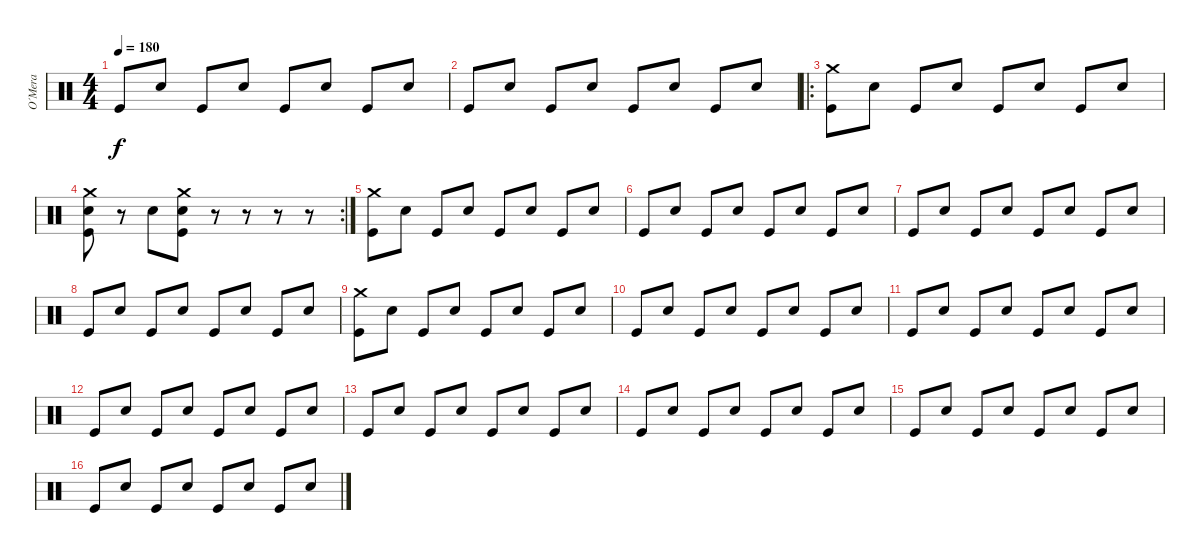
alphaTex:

\track ("O´Mera" "O´Mera") {instrument percussion}
\staff {score}
\articulation defaults
\ts (4 4)
\tempo 180
\clef neutral
\ks c "Kick (hit)".8{dy f} "Electric Snare (hit)".8 "Kick (hit)".8 "Electric Snare (hit)".8 "Kick (hit)".8 "Electric Snare (hit)".8 "Kick (hit)".8 "Electric Snare (hit)".8
|
"Kick (hit)".8 "Electric Snare (hit)".8 "Kick (hit)".8 "Electric Snare (hit)".8 "Kick (hit)".8 "Electric Snare (hit)".8 "Kick (hit)".8 "Electric Snare (hit)".8 |
\ro
("Crash medium (hit)" "Kick (hit)").8 "Electric Snare (hit)".8 "Kick (hit)".8 "Electric Snare (hit)".8 "Kick (hit)".8 "Electric Snare (hit)".8 "Kick (hit)".8 "Electric Snare (hit)".8 |
\rc 2
("Crash medium (hit)" "Electric Snare (hit)" "Kick (hit)").8 r.8 "Electric Snare (hit)".8 ("Crash medium (hit)" "Electric Snare (hit)" "Kick (hit)").8 r.8 r.8 r.8 r.8 |
("Crash medium (hit)" "Kick (hit)").8 "Electric Snare (hit)".8 "Kick (hit)".8 "Electric Snare (hit)".8 "Kick (hit)".8 "Electric Snare (hit)".8 "Kick (hit)".8 "Electric Snare (hit)".8 |
"Kick (hit)".8 "Electric Snare (hit)".8 "Kick (hit)".8 "Electric Snare (hit)".8 "Kick (hit)".8 "Electric Snare (hit)".8 "Kick (hit)".8 "Electric Snare (hit)".8 |
"Kick (hit)".8 "Electric Snare (hit)".8 "Kick (hit)".8 "Electric Snare (hit)".8 "Kick (hit)".8 "Electric Snare (hit)".8 "Kick (hit)".8 "Electric Snare (hit)".8 |
"Kick (hit)".8 "Electric Snare (hit)".8 "Kick (hit)".8 "Electric Snare (hit)".8 "Kick (hit)".8 "Electric Snare (hit)".8 "Kick (hit)".8 "Electric Snare (hit)".8 |
("Crash medium (hit)" "Kick (hit)").8 "Electric Snare (hit)".8 "Kick (hit)".8 "Electric Snare (hit)".8 "Kick (hit)".8 "Electric Snare (hit)".8 "Kick (hit)".8 "Electric Snare (hit)".8 |
"Kick (hit)".8 "Electric Snare (hit)".8 "Kick (hit)".8 "Electric Snare (hit)".8 "Kick (hit)".8 "Electric Snare (hit)".8 "Kick (hit)".8 "Electric Snare (hit)".8 |
"Kick (hit)".8 "Electric Snare (hit)".8 "Kick (hit)".8 "Electric Snare (hit)".8 "Kick (hit)".8 "Electric Snare (hit)".8 "Kick (hit)".8 "Electric Snare (hit)".8 |
"Kick (hit)".8 "Electric Snare (hit)".8 "Kick (hit)".8 "Electric Snare (hit)".8 "Kick (hit)".8 "Electric Snare (hit)".8 "Kick (hit)".8 "Electric Snare (hit)".8 |
"Kick (hit)".8 "Electric Snare (hit)".8 "Kick (hit)".8 "Electric Snare (hit)".8 "Kick (hit)".8 "Electric Snare (hit)".8 "Kick (hit)".8 "Electric Snare (hit)".8 |
"Kick (hit)".8 "Electric Snare (hit)".8 "Kick (hit)".8 "Electric Snare (hit)".8 "Kick (hit)".8 "Electric Snare (hit)".8 "Kick (hit)".8 "Electric Snare (hit)".8 |
"Kick (hit)".8 "Electric Snare (hit)".8 "Kick (hit)".8 "Electric Snare (hit)".8 "Kick (hit)".8 "Electric Snare (hit)".8 "Kick (hit)".8 "Electric Snare (hit)".8 |
"Kick (hit)".8 "Electric Snare (hit)".8 "Kick (hit)".8 "Electric Snare (hit)".8 "Kick (hit)".8 "Electric Snare (hit)".8 "Kick (hit)".8 "Electric Snare (hit)".8
